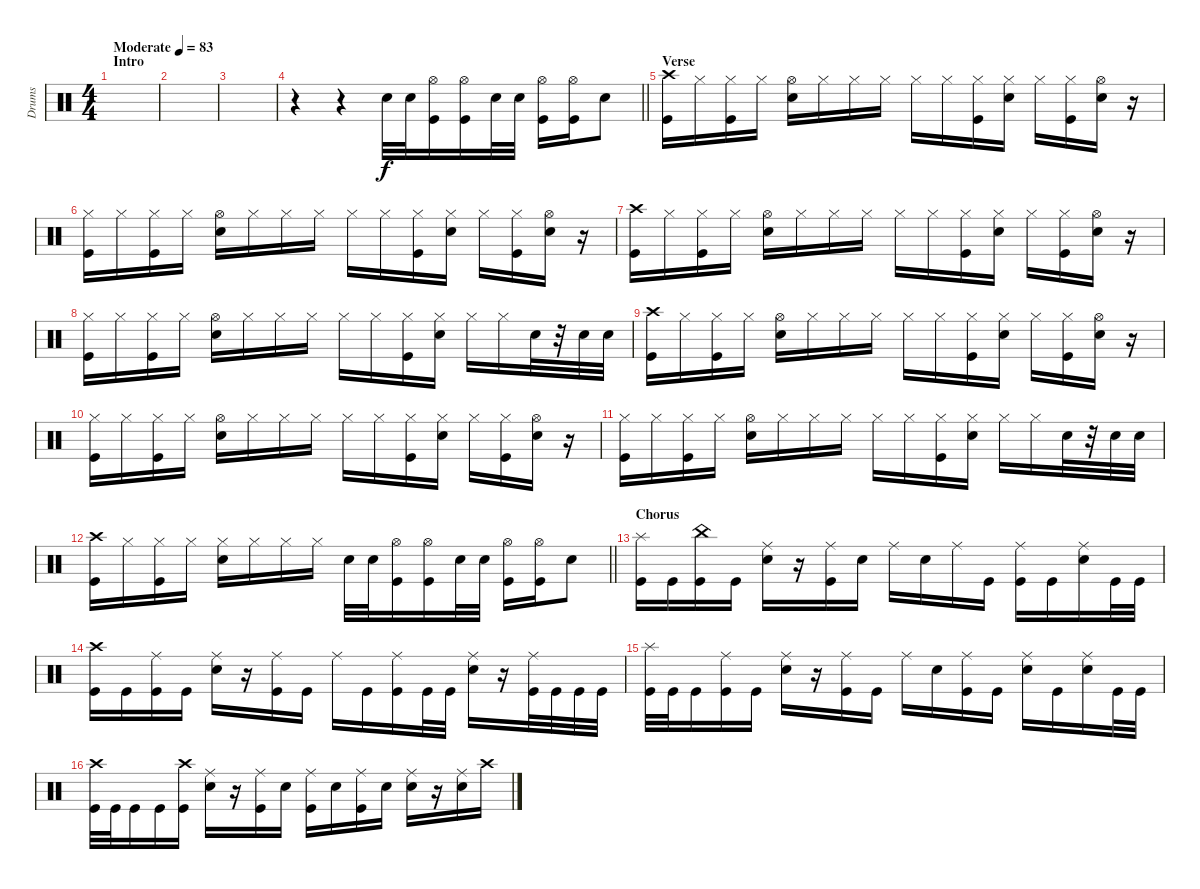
\track ("Drums" "Drums") {instrument percussion}
\staff {score}
\articulation defaults
\ts (4 4)
\section ("" "Intro")
\tempo (83 "Moderate")
\clef neutral
\ks c
|
|
|
\barLineRight lightlight
r.4 r.4 "Electric Snare (hit)".32 "Electric Snare (hit)".32 ("Hi-Hat (open)" "Kick (hit)").16 ("Hi-Hat (open)" "Kick (hit)").16 "Electric Snare (hit)".32 "Electric Snare (hit)".32 ("Hi-Hat (open)" "Kick (hit)").16 ("Hi-Hat (open)" "Kick (hit)").16 "Electric Snare (hit)".8 |
\section ("" "Verse")
("Crash high (hit)" "Kick (hit)").16 "Hi-Hat (closed)".16 ("Hi-Hat (closed)" "Kick (hit)").16 "Hi-Hat (closed)".16 ("Hi-Hat (open)" "Electric Snare (hit)").16 "Hi-Hat (closed)".16 "Hi-Hat (closed)".16 "Hi-Hat (closed)".16 "Hi-Hat (closed)".16 "Hi-Hat (closed)".16 ("Hi-Hat (closed)" "Kick (hit)").16 ("Hi-Hat (closed)" "Electric Snare (hit)").16 "Hi-Hat (closed)".16 ("Hi-Hat (closed)" "Kick (hit)").16 ("Hi-Hat (open)" "Electric Snare (hit)").16 r.16 |
("Hi-Hat (closed)" "Kick (hit)").16 "Hi-Hat (closed)".16 ("Hi-Hat (closed)" "Kick (hit)").16 "Hi-Hat (closed)".16 ("Hi-Hat (open)" "Electric Snare (hit)").16 "Hi-Hat (closed)".16 "Hi-Hat (closed)".16 "Hi-Hat (closed)".16 "Hi-Hat (closed)".16 "Hi-Hat (closed)".16 ("Hi-Hat (closed)" "Kick (hit)").16 ("Hi-Hat (closed)" "Electric Snare (hit)").16 "Hi-Hat (closed)".16 ("Hi-Hat (closed)" "Kick (hit)").16 ("Hi-Hat (open)" "Electric Snare (hit)").16 r.16 |
("Crash high (hit)" "Kick (hit)").16 "Hi-Hat (closed)".16 ("Hi-Hat (closed)" "Kick (hit)").16 "Hi-Hat (closed)".16 ("Hi-Hat (open)" "Electric Snare (hit)").16 "Hi-Hat (closed)".16 "Hi-Hat (closed)".16 "Hi-Hat (closed)".16 "Hi-Hat (closed)".16 "Hi-Hat (closed)".16 ("Hi-Hat (closed)" "Kick (hit)").16 ("Hi-Hat (closed)" "Electric Snare (hit)").16 "Hi-Hat (closed)".16 ("Hi-Hat (closed)" "Kick (hit)").16 ("Hi-Hat (open)" "Electric Snare (hit)").16 r.16 |
("Hi-Hat (closed)" "Kick (hit)").16 "Hi-Hat (closed)".16 ("Hi-Hat (closed)" "Kick (hit)").16 "Hi-Hat (closed)".16 ("Hi-Hat (open)" "Electric Snare (hit)").16 "Hi-Hat (closed)".16 "Hi-Hat (closed)".16 "Hi-Hat (closed)".16 "Hi-Hat (closed)".16 "Hi-Hat (closed)".16 ("Hi-Hat (closed)" "Kick (hit)").16 ("Hi-Hat (closed)" "Electric Snare (hit)").16 "Hi-Hat (closed)".16 "Hi-Hat (closed)".16 "Electric Snare (hit)".32 r.32 "Electric Snare (hit)".32 "Electric Snare (hit)".32 |
("Crash high (hit)" "Kick (hit)").16 "Hi-Hat (closed)".16 ("Hi-Hat (closed)" "Kick (hit)").16 "Hi-Hat (closed)".16 ("Hi-Hat (open)" "Electric Snare (hit)").16 "Hi-Hat (closed)".16 "Hi-Hat (closed)".16 "Hi-Hat (closed)".16 "Hi-Hat (closed)".16 "Hi-Hat (closed)".16 ("Hi-Hat (closed)" "Kick (hit)").16 ("Hi-Hat (closed)" "Electric Snare (hit)").16 "Hi-Hat (closed)".16 ("Hi-Hat (closed)" "Kick (hit)").16 ("Hi-Hat (open)" "Electric Snare (hit)").16 r.16 |
("Hi-Hat (closed)" "Kick (hit)").16 "Hi-Hat (closed)".16 ("Hi-Hat (closed)" "Kick (hit)").16 "Hi-Hat (closed)".16 ("Hi-Hat (open)" "Electric Snare (hit)").16 "Hi-Hat (closed)".16 "Hi-Hat (closed)".16 "Hi-Hat (closed)".16 "Hi-Hat (closed)".16 "Hi-Hat (closed)".16 ("Hi-Hat (closed)" "Kick (hit)").16 ("Hi-Hat (closed)" "Electric Snare (hit)").16 "Hi-Hat (closed)".16 ("Hi-Hat (closed)" "Kick (hit)").16 ("Hi-Hat (open)" "Electric Snare (hit)").16 r.16 |
("Hi-Hat (closed)" "Kick (hit)").16 "Hi-Hat (closed)".16 ("Hi-Hat (closed)" "Kick (hit)").16 "Hi-Hat (closed)".16 ("Hi-Hat (open)" "Electric Snare (hit)").16 "Hi-Hat (closed)".16 "Hi-Hat (closed)".16 "Hi-Hat (closed)".16 "Hi-Hat (closed)".16 "Hi-Hat (closed)".16 ("Hi-Hat (closed)" "Kick (hit)").16 ("Hi-Hat (closed)" "Electric Snare (hit)").16 "Hi-Hat (closed)".16 "Hi-Hat (closed)".16 "Electric Snare (hit)".32 r.32 "Electric Snare (hit)".32 "Electric Snare (hit)".32 |
\barLineRight lightlight
("Crash high (hit)" "Kick (hit)").16 "Hi-Hat (closed)".16 ("Hi-Hat (closed)" "Kick (hit)").16 "Hi-Hat (closed)".16 ("Hi-Hat (closed)" "Electric Snare (hit)").16 "Hi-Hat (closed)".16 "Hi-Hat (closed)".16 "Hi-Hat (closed)".16 "Electric Snare (hit)".32 "Electric Snare (hit)".32 ("Hi-Hat (open)" "Kick (hit)").16 ("Hi-Hat (open)" "Kick (hit)").16 "Electric Snare (hit)".32 "Electric Snare (hit)".32 ("Hi-Hat (open)" "Kick (hit)").16 ("Hi-Hat (open)" "Kick (hit)").16 "Electric Snare (hit)".8 |
\section ("" "Chorus")
("Splash (hit)" "Kick (hit)").16 "Kick (hit)".16 ("China (hit)" "Kick (hit)").16 "Kick (hit)".16 ("Ride (middle)" "Electric Snare (hit)").16 r.16 ("Ride (middle)" "Kick (hit)").16 "Electric Snare (hit)".16 "Ride (middle)".16 "Electric Snare (hit)".16 "Ride (middle)".16 "Kick (hit)".16 ("Ride (middle)" "Kick (hit)").16 "Kick (hit)".16 ("Ride (middle)" "Electric Snare (hit)").16 "Kick (hit)".32 "Kick (hit)".32 |
("Crash high (hit)" "Kick (hit)").16 "Kick (hit)".16 ("Ride (middle)" "Kick (hit)").16 "Kick (hit)".16 ("Ride (middle)" "Electric Snare (hit)").16 r.16 ("Ride (middle)" "Kick (hit)").16 "Kick (hit)".16 "Ride (middle)".16 "Kick (hit)".16 ("Ride (middle)" "Kick (hit)").16 "Kick (hit)".32 "Kick (hit)".32 ("Ride (middle)" "Electric Snare (hit)").16 r.16 ("Ride (middle)" "Kick (hit)").32 "Kick (hit)".32 "Kick (hit)".32 "Kick (hit)".32 |
("Splash (hit)" "Kick (hit)").32 "Kick (hit)".32 "Kick (hit)".16 ("Ride (middle)" "Kick (hit)").16 "Kick (hit)".16 ("Ride (middle)" "Electric Snare (hit)").16 r.16 ("Ride (middle)" "Kick (hit)").16 "Kick (hit)".16 "Ride (middle)".16 "Electric Snare (hit)".16 ("Ride (middle)" "Kick (hit)").16 "Kick (hit)".16 ("Ride (middle)" "Electric Snare (hit)").16 "Kick (hit)".16 ("Ride (middle)" "Electric Snare (hit)").16 "Kick (hit)".32 "Kick (hit)".32 |
("Crash high (hit)" "Kick (hit)").32 "Kick (hit)".32 "Kick (hit)".16 "Kick (hit)".16 ("Crash high (hit)" "Kick (hit)").16 ("Ride (middle)" "Electric Snare (hit)").16 r.16 ("Ride (middle)" "Kick (hit)").16 "Electric Snare (hit)".16 ("Ride (middle)" "Kick (hit)").16 "Electric Snare (hit)".16 ("Ride (middle)" "Kick (hit)").16 "Electric Snare (hit)".16 ("Ride (middle)" "Electric Snare (hit)").16 r.16 ("Ride (middle)" "Electric Snare (hit)").16 "Crash high (hit)".16
